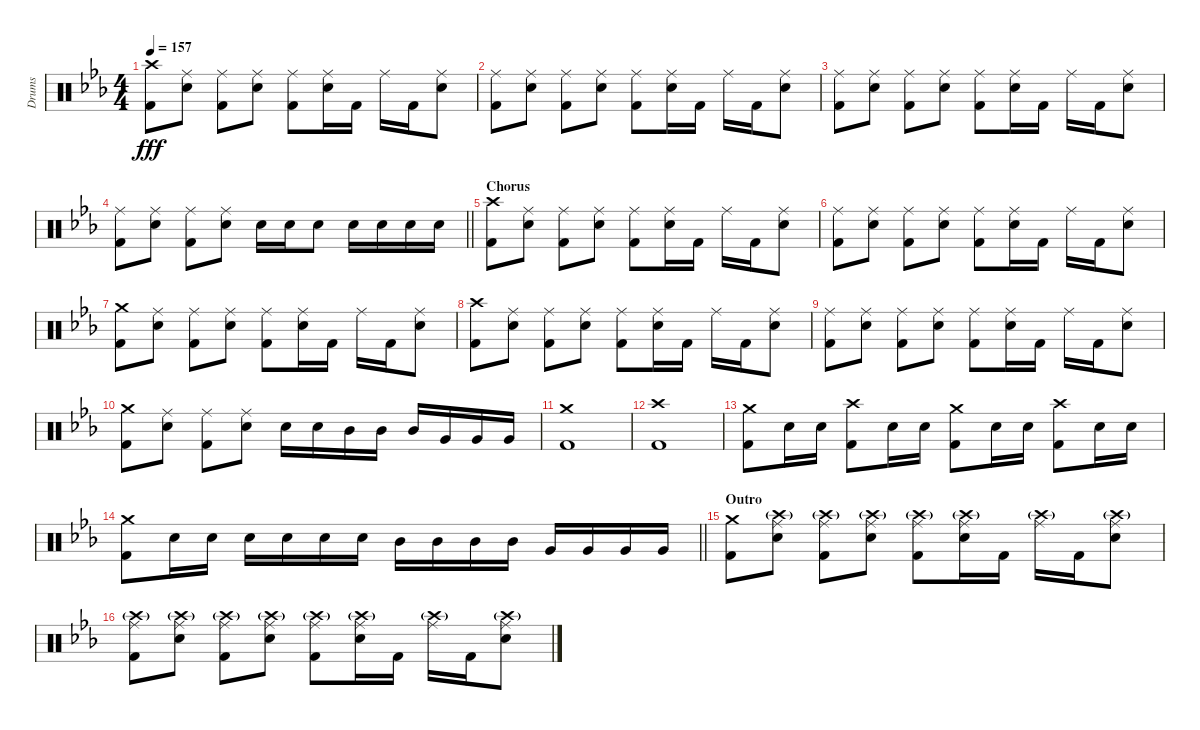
\track ("Drums" "Drums") {instrument percussion}
\staff {score}
\articulation defaults
\ts (4 4)
\tempo 157
\clef neutral
\ks eb
("Crash high (hit)" "Kick (hit) 2").8{dy fff} ("Ride (middle)" "Snare (hit) 2").8 ("Ride (middle)" "Kick (hit) 2").8 ("Ride (middle)" "Snare (hit) 2").8 ("Ride (middle)" "Kick (hit) 2").8 ("Ride (middle)" "Snare (hit) 2").16 "Kick (hit) 2".16 "Ride (middle)".16 "Kick (hit) 2".16 ("Ride (middle)" "Snare (hit) 2").8 |
("Ride (middle)" "Kick (hit) 2").8 ("Ride (middle)" "Snare (hit) 2").8 ("Ride (middle)" "Kick (hit) 2").8 ("Ride (middle)" "Snare (hit) 2").8 ("Ride (middle)" "Kick (hit) 2").8 ("Ride (middle)" "Snare (hit) 2").16 "Kick (hit) 2".16 "Ride (middle)".16 "Kick (hit) 2".16 ("Ride (middle)" "Snare (hit) 2").8 |
("Ride (middle)" "Kick (hit) 2").8 ("Ride (middle)" "Snare (hit) 2").8 ("Ride (middle)" "Kick (hit) 2").8 ("Ride (middle)" "Snare (hit) 2").8 ("Ride (middle)" "Kick (hit) 2").8 ("Ride (middle)" "Snare (hit) 2").16 "Kick (hit) 2".16 "Ride (middle)".16 "Kick (hit) 2".16 ("Ride (middle)" "Snare (hit) 2").8 |
\barLineRight lightlight
("Ride (middle)" "Kick (hit) 2").8 ("Ride (middle)" "Snare (hit) 2").8 ("Ride (middle)" "Kick (hit) 2").8 ("Ride (middle)" "Snare (hit) 2").8 "Snare (hit) 2".16 "Snare (hit) 2".16 "Snare (hit) 2".8 "Snare (hit) 2".16 "Snare (hit) 2".16 "Snare (hit) 2".16 "Snare (hit) 2".16 |
\section ("" "Chorus")
("Crash high (hit)" "Kick (hit) 2").8 ("Ride (middle)" "Snare (hit) 2").8 ("Ride (middle)" "Kick (hit) 2").8 ("Ride (middle)" "Snare (hit) 2").8 ("Ride (middle)" "Kick (hit) 2").8 ("Ride (middle)" "Snare (hit) 2").16 "Kick (hit) 2".16 "Ride (middle)".16 "Kick (hit) 2".16 ("Ride (middle)" "Snare (hit) 2").8 |
("Ride (middle)" "Kick (hit) 2").8 ("Ride (middle)" "Snare (hit) 2").8 ("Ride (middle)" "Kick (hit) 2").8 ("Ride (middle)" "Snare (hit) 2").8 ("Ride (middle)" "Kick (hit) 2").8 ("Ride (middle)" "Snare (hit) 2").16 "Kick (hit) 2".16 "Ride (middle)".16 "Kick (hit) 2".16 ("Ride (middle)" "Snare (hit) 2").8 |
("Crash medium (hit)" "Kick (hit) 2").8 ("Ride (middle)" "Snare (hit) 2").8 ("Ride (middle)" "Kick (hit) 2").8 ("Ride (middle)" "Snare (hit) 2").8 ("Ride (middle)" "Kick (hit) 2").8 ("Ride (middle)" "Snare (hit) 2").16 "Kick (hit) 2".16 "Ride (middle)".16 "Kick (hit) 2".16 ("Ride (middle)" "Snare (hit) 2").8 |
("Crash high (hit)" "Kick (hit) 2").8 ("Ride (middle)" "Snare (hit) 2").8 ("Ride (middle)" "Kick (hit) 2").8 ("Ride (middle)" "Snare (hit) 2").8 ("Ride (middle)" "Kick (hit) 2").8 ("Ride (middle)" "Snare (hit) 2").16 "Kick (hit) 2".16 "Ride (middle)".16 "Kick (hit) 2".16 ("Ride (middle)" "Snare (hit) 2").8 |
("Ride (middle)" "Kick (hit) 2").8 ("Ride (middle)" "Snare (hit) 2").8 ("Ride (middle)" "Kick (hit) 2").8 ("Ride (middle)" "Snare (hit) 2").8 ("Ride (middle)" "Kick (hit) 2").8 ("Ride (middle)" "Snare (hit) 2").16 "Kick (hit) 2".16 "Ride (middle)".16 "Kick (hit) 2".16 ("Ride (middle)" "Snare (hit) 2").8 |
("Crash medium (hit)" "Kick (hit) 2").8 ("Ride (middle)" "Snare (hit) 2").8 ("Ride (middle)" "Kick (hit) 2").8 ("Ride (middle)" "Snare (hit) 2").8 "Snare (hit) 2".16 "Snare (hit) 2".16 "Mid Tom (hit)".16 "Mid Tom (hit)".16 "Mid Tom (hit)".16 "Very Low Tom (hit)".16 "Very Low Tom (hit)".16 "Very Low Tom (hit)".16 |
("Crash medium (hit)" "Kick (hit) 2").1 |
("Crash high (hit)" "Kick (hit) 2").1 |
("Crash medium (hit)" "Kick (hit) 2").8 "Snare (hit) 2".16 "Snare (hit) 2".16 ("Crash high (hit)" "Kick (hit) 2").8 "Snare (hit) 2".16 "Snare (hit) 2".16 ("Crash medium (hit)" "Kick (hit) 2").8 "Snare (hit) 2".16 "Snare (hit) 2".16 ("Crash high (hit)" "Kick (hit) 2").8 "Snare (hit) 2".16 "Snare (hit) 2".16 |
\barLineRight lightlight
("Crash medium (hit)" "Kick (hit) 2").8 "Snare (hit) 2".16 "Snare (hit) 2".16 "Snare (hit) 2".16 "Snare (hit) 2".16 "Snare (hit) 2".16 "Snare (hit) 2".16 "Mid Tom (hit)".16 "Mid Tom (hit)".16 "Mid Tom (hit)".16 "Mid Tom (hit)".16 "Very Low Tom (hit)".16 "Very Low Tom (hit)".16 "Very Low Tom (hit)".16 "Very Low Tom (hit)".16 |
\section ("" "Outro")
("Crash medium (hit)" "Kick (hit) 2").8 ("Crash high (hit)"{g} "Ride (middle)" "Snare (hit) 2").8 ("Crash high (hit)"{g} "Ride (middle)" "Kick (hit) 2").8 ("Crash high (hit)"{g} "Ride (middle)" "Snare (hit) 2").8 ("Crash high (hit)"{g} "Ride (middle)" "Kick (hit) 2").8 ("Crash high (hit)"{g} "Ride (middle)" "Snare (hit) 2").16 "Kick (hit) 2".16 ("Crash high (hit)"{g} "Ride (middle)").16 "Kick (hit) 2".16 ("Crash high (hit)"{g} "Ride (middle)" "Snare (hit) 2").8 |
("Crash high (hit)"{g} "Ride (middle)" "Kick (hit) 2").8 ("Crash high (hit)"{g} "Ride (middle)" "Snare (hit) 2").8 ("Crash high (hit)"{g} "Ride (middle)" "Kick (hit) 2").8 ("Crash high (hit)"{g} "Ride (middle)" "Snare (hit) 2").8 ("Crash high (hit)"{g} "Ride (middle)" "Kick (hit) 2").8 ("Crash high (hit)"{g} "Ride (middle)" "Snare (hit) 2").16 "Kick (hit) 2".16 ("Crash high (hit)"{g} "Ride (middle)").16 "Kick (hit) 2".16 ("Crash high (hit)"{g} "Ride (middle)" "Snare (hit) 2").8
